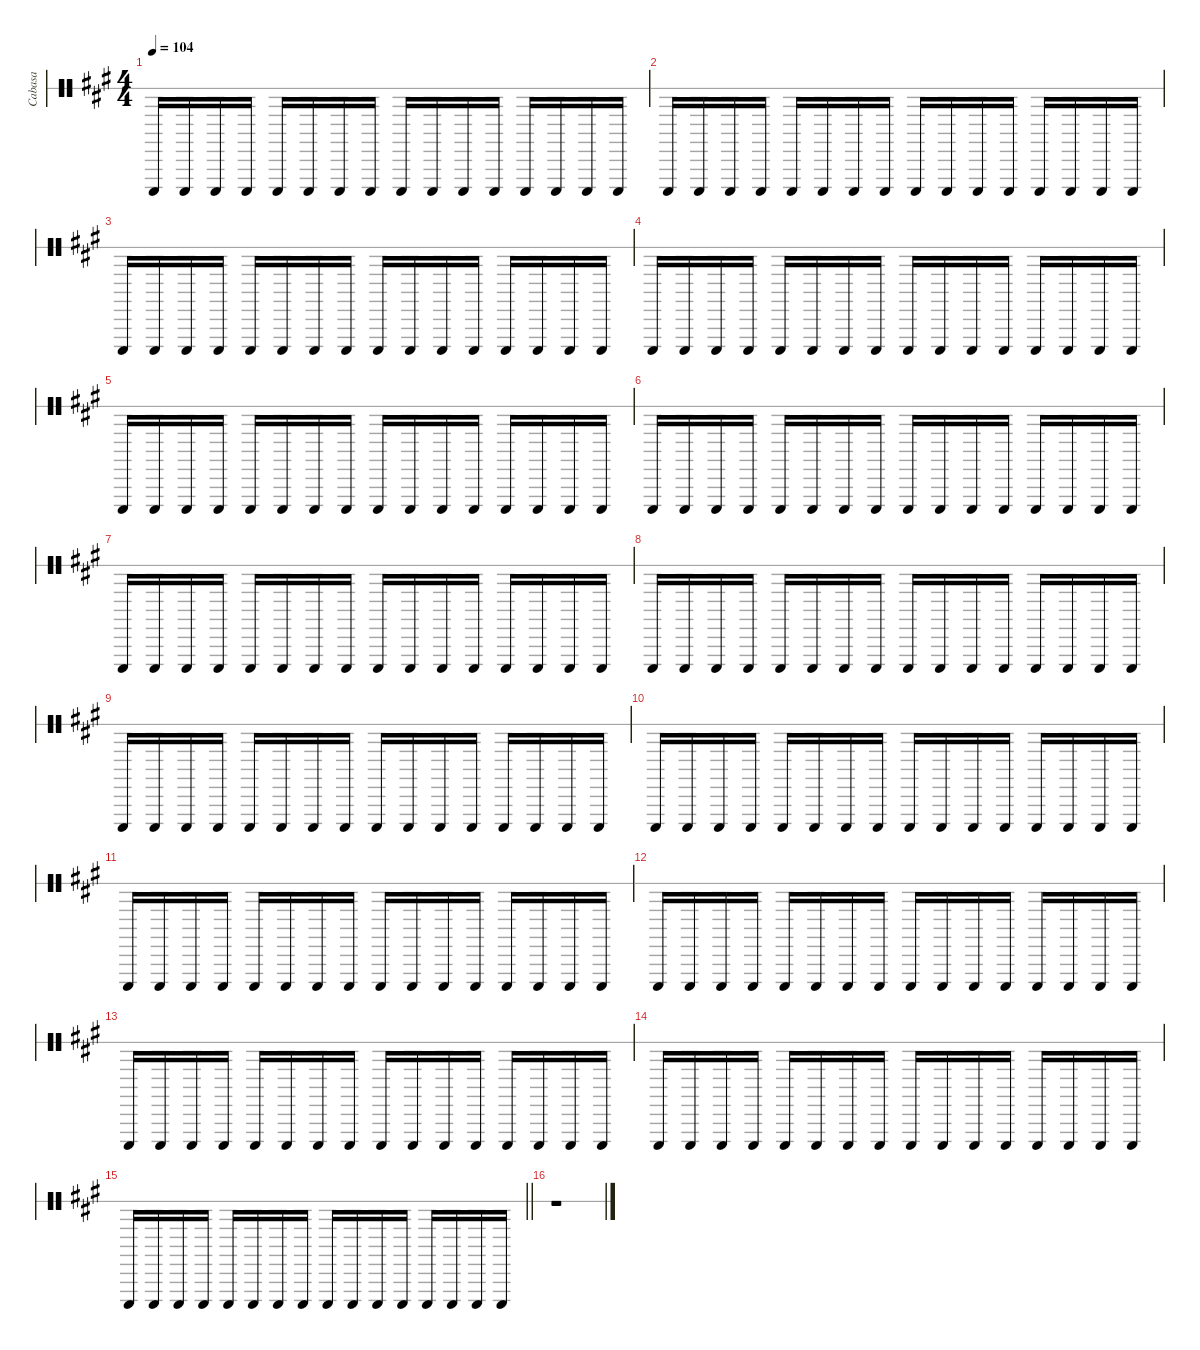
\hideDynamics
\bracketExtendMode nobrackets
\otherSystemsTrackNameOrientation horizontal
\track ("Cabasa" "Cabasa") {instrument percussion}
\staff {score 1}
\articulation defaults
\ts (4 4)
\tempo 104
\clef neutral
\ks a "Cabasa (hit)"{acc forcenatural}.16{dy f beam Up} "Cabasa (hit)"{acc forcenatural}.16{beam Up} "Cabasa (hit)"{acc forcenatural}.16{beam Up} "Cabasa (hit)"{acc forcenatural}.16{beam Up} "Cabasa (hit)"{acc forcenatural}.16{beam Up} "Cabasa (hit)"{acc forcenatural}.16{beam Up} "Cabasa (hit)"{acc forcenatural}.16{beam Up} "Cabasa (hit)"{acc forcenatural}.16{beam Up} "Cabasa (hit)"{acc forcenatural}.16{beam Up} "Cabasa (hit)"{acc forcenatural}.16{beam Up} "Cabasa (hit)"{acc forcenatural}.16{beam Up} "Cabasa (hit)"{acc forcenatural}.16{beam Up} "Cabasa (hit)"{acc forcenatural}.16{beam Up} "Cabasa (hit)"{acc forcenatural}.16{beam Up} "Cabasa (hit)"{acc forcenatural}.16{beam Up} "Cabasa (hit)"{acc forcenatural}.16{beam Up}
|
"Cabasa (hit)"{acc forcenatural}.16{beam Up} "Cabasa (hit)"{acc forcenatural}.16{beam Up} "Cabasa (hit)"{acc forcenatural}.16{beam Up} "Cabasa (hit)"{acc forcenatural}.16{beam Up} "Cabasa (hit)"{acc forcenatural}.16{beam Up} "Cabasa (hit)"{acc forcenatural}.16{beam Up} "Cabasa (hit)"{acc forcenatural}.16{beam Up} "Cabasa (hit)"{acc forcenatural}.16{beam Up} "Cabasa (hit)"{acc forcenatural}.16{beam Up} "Cabasa (hit)"{acc forcenatural}.16{beam Up} "Cabasa (hit)"{acc forcenatural}.16{beam Up} "Cabasa (hit)"{acc forcenatural}.16{beam Up} "Cabasa (hit)"{acc forcenatural}.16{beam Up} "Cabasa (hit)"{acc forcenatural}.16{beam Up} "Cabasa (hit)"{acc forcenatural}.16{beam Up} "Cabasa (hit)"{acc forcenatural}.16{beam Up} |
"Cabasa (hit)"{acc forcenatural}.16{beam Up} "Cabasa (hit)"{acc forcenatural}.16{beam Up} "Cabasa (hit)"{acc forcenatural}.16{beam Up} "Cabasa (hit)"{acc forcenatural}.16{beam Up} "Cabasa (hit)"{acc forcenatural}.16{beam Up} "Cabasa (hit)"{acc forcenatural}.16{beam Up} "Cabasa (hit)"{acc forcenatural}.16{beam Up} "Cabasa (hit)"{acc forcenatural}.16{beam Up} "Cabasa (hit)"{acc forcenatural}.16{beam Up} "Cabasa (hit)"{acc forcenatural}.16{beam Up} "Cabasa (hit)"{acc forcenatural}.16{beam Up} "Cabasa (hit)"{acc forcenatural}.16{beam Up} "Cabasa (hit)"{acc forcenatural}.16{beam Up} "Cabasa (hit)"{acc forcenatural}.16{beam Up} "Cabasa (hit)"{acc forcenatural}.16{beam Up} "Cabasa (hit)"{acc forcenatural}.16{beam Up} |
"Cabasa (hit)"{acc forcenatural}.16{beam Up} "Cabasa (hit)"{acc forcenatural}.16{beam Up} "Cabasa (hit)"{acc forcenatural}.16{beam Up} "Cabasa (hit)"{acc forcenatural}.16{beam Up} "Cabasa (hit)"{acc forcenatural}.16{beam Up} "Cabasa (hit)"{acc forcenatural}.16{beam Up} "Cabasa (hit)"{acc forcenatural}.16{beam Up} "Cabasa (hit)"{acc forcenatural}.16{beam Up} "Cabasa (hit)"{acc forcenatural}.16{beam Up} "Cabasa (hit)"{acc forcenatural}.16{beam Up} "Cabasa (hit)"{acc forcenatural}.16{beam Up} "Cabasa (hit)"{acc forcenatural}.16{beam Up} "Cabasa (hit)"{acc forcenatural}.16{beam Up} "Cabasa (hit)"{acc forcenatural}.16{beam Up} "Cabasa (hit)"{acc forcenatural}.16{beam Up} "Cabasa (hit)"{acc forcenatural}.16{beam Up} |
"Cabasa (hit)"{acc forcenatural}.16{beam Up} "Cabasa (hit)"{acc forcenatural}.16{beam Up} "Cabasa (hit)"{acc forcenatural}.16{beam Up} "Cabasa (hit)"{acc forcenatural}.16{beam Up} "Cabasa (hit)"{acc forcenatural}.16{beam Up} "Cabasa (hit)"{acc forcenatural}.16{beam Up} "Cabasa (hit)"{acc forcenatural}.16{beam Up} "Cabasa (hit)"{acc forcenatural}.16{beam Up} "Cabasa (hit)"{acc forcenatural}.16{beam Up} "Cabasa (hit)"{acc forcenatural}.16{beam Up} "Cabasa (hit)"{acc forcenatural}.16{beam Up} "Cabasa (hit)"{acc forcenatural}.16{beam Up} "Cabasa (hit)"{acc forcenatural}.16{beam Up} "Cabasa (hit)"{acc forcenatural}.16{beam Up} "Cabasa (hit)"{acc forcenatural}.16{beam Up} "Cabasa (hit)"{acc forcenatural}.16{beam Up} |
"Cabasa (hit)"{acc forcenatural}.16{beam Up} "Cabasa (hit)"{acc forcenatural}.16{beam Up} "Cabasa (hit)"{acc forcenatural}.16{beam Up} "Cabasa (hit)"{acc forcenatural}.16{beam Up} "Cabasa (hit)"{acc forcenatural}.16{beam Up} "Cabasa (hit)"{acc forcenatural}.16{beam Up} "Cabasa (hit)"{acc forcenatural}.16{beam Up} "Cabasa (hit)"{acc forcenatural}.16{beam Up} "Cabasa (hit)"{acc forcenatural}.16{beam Up} "Cabasa (hit)"{acc forcenatural}.16{beam Up} "Cabasa (hit)"{acc forcenatural}.16{beam Up} "Cabasa (hit)"{acc forcenatural}.16{beam Up} "Cabasa (hit)"{acc forcenatural}.16{beam Up} "Cabasa (hit)"{acc forcenatural}.16{beam Up} "Cabasa (hit)"{acc forcenatural}.16{beam Up} "Cabasa (hit)"{acc forcenatural}.16{beam Up} |
"Cabasa (hit)"{acc forcenatural}.16{beam Up} "Cabasa (hit)"{acc forcenatural}.16{beam Up} "Cabasa (hit)"{acc forcenatural}.16{beam Up} "Cabasa (hit)"{acc forcenatural}.16{beam Up} "Cabasa (hit)"{acc forcenatural}.16{beam Up} "Cabasa (hit)"{acc forcenatural}.16{beam Up} "Cabasa (hit)"{acc forcenatural}.16{beam Up} "Cabasa (hit)"{acc forcenatural}.16{beam Up} "Cabasa (hit)"{acc forcenatural}.16{beam Up} "Cabasa (hit)"{acc forcenatural}.16{beam Up} "Cabasa (hit)"{acc forcenatural}.16{beam Up} "Cabasa (hit)"{acc forcenatural}.16{beam Up} "Cabasa (hit)"{acc forcenatural}.16{beam Up} "Cabasa (hit)"{acc forcenatural}.16{beam Up} "Cabasa (hit)"{acc forcenatural}.16{beam Up} "Cabasa (hit)"{acc forcenatural}.16{beam Up} |
"Cabasa (hit)"{acc forcenatural}.16{beam Up} "Cabasa (hit)"{acc forcenatural}.16{beam Up} "Cabasa (hit)"{acc forcenatural}.16{beam Up} "Cabasa (hit)"{acc forcenatural}.16{beam Up} "Cabasa (hit)"{acc forcenatural}.16{beam Up} "Cabasa (hit)"{acc forcenatural}.16{beam Up} "Cabasa (hit)"{acc forcenatural}.16{beam Up} "Cabasa (hit)"{acc forcenatural}.16{beam Up} "Cabasa (hit)"{acc forcenatural}.16{beam Up} "Cabasa (hit)"{acc forcenatural}.16{beam Up} "Cabasa (hit)"{acc forcenatural}.16{beam Up} "Cabasa (hit)"{acc forcenatural}.16{beam Up} "Cabasa (hit)"{acc forcenatural}.16{beam Up} "Cabasa (hit)"{acc forcenatural}.16{beam Up} "Cabasa (hit)"{acc forcenatural}.16{beam Up} "Cabasa (hit)"{acc forcenatural}.16{beam Up} |
"Cabasa (hit)"{acc forcenatural}.16{beam Up} "Cabasa (hit)"{acc forcenatural}.16{beam Up} "Cabasa (hit)"{acc forcenatural}.16{beam Up} "Cabasa (hit)"{acc forcenatural}.16{beam Up} "Cabasa (hit)"{acc forcenatural}.16{beam Up} "Cabasa (hit)"{acc forcenatural}.16{beam Up} "Cabasa (hit)"{acc forcenatural}.16{beam Up} "Cabasa (hit)"{acc forcenatural}.16{beam Up} "Cabasa (hit)"{acc forcenatural}.16{beam Up} "Cabasa (hit)"{acc forcenatural}.16{beam Up} "Cabasa (hit)"{acc forcenatural}.16{beam Up} "Cabasa (hit)"{acc forcenatural}.16{beam Up} "Cabasa (hit)"{acc forcenatural}.16{beam Up} "Cabasa (hit)"{acc forcenatural}.16{beam Up} "Cabasa (hit)"{acc forcenatural}.16{beam Up} "Cabasa (hit)"{acc forcenatural}.16{beam Up} |
"Cabasa (hit)"{acc forcenatural}.16{beam Up} "Cabasa (hit)"{acc forcenatural}.16{beam Up} "Cabasa (hit)"{acc forcenatural}.16{beam Up} "Cabasa (hit)"{acc forcenatural}.16{beam Up} "Cabasa (hit)"{acc forcenatural}.16{beam Up} "Cabasa (hit)"{acc forcenatural}.16{beam Up} "Cabasa (hit)"{acc forcenatural}.16{beam Up} "Cabasa (hit)"{acc forcenatural}.16{beam Up} "Cabasa (hit)"{acc forcenatural}.16{beam Up} "Cabasa (hit)"{acc forcenatural}.16{beam Up} "Cabasa (hit)"{acc forcenatural}.16{beam Up} "Cabasa (hit)"{acc forcenatural}.16{beam Up} "Cabasa (hit)"{acc forcenatural}.16{beam Up} "Cabasa (hit)"{acc forcenatural}.16{beam Up} "Cabasa (hit)"{acc forcenatural}.16{beam Up} "Cabasa (hit)"{acc forcenatural}.16{beam Up} |
"Cabasa (hit)"{acc forcenatural}.16{beam Up} "Cabasa (hit)"{acc forcenatural}.16{beam Up} "Cabasa (hit)"{acc forcenatural}.16{beam Up} "Cabasa (hit)"{acc forcenatural}.16{beam Up} "Cabasa (hit)"{acc forcenatural}.16{beam Up} "Cabasa (hit)"{acc forcenatural}.16{beam Up} "Cabasa (hit)"{acc forcenatural}.16{beam Up} "Cabasa (hit)"{acc forcenatural}.16{beam Up} "Cabasa (hit)"{acc forcenatural}.16{beam Up} "Cabasa (hit)"{acc forcenatural}.16{beam Up} "Cabasa (hit)"{acc forcenatural}.16{beam Up} "Cabasa (hit)"{acc forcenatural}.16{beam Up} "Cabasa (hit)"{acc forcenatural}.16{beam Up} "Cabasa (hit)"{acc forcenatural}.16{beam Up} "Cabasa (hit)"{acc forcenatural}.16{beam Up} "Cabasa (hit)"{acc forcenatural}.16{beam Up} |
"Cabasa (hit)"{acc forcenatural}.16{beam Up} "Cabasa (hit)"{acc forcenatural}.16{beam Up} "Cabasa (hit)"{acc forcenatural}.16{beam Up} "Cabasa (hit)"{acc forcenatural}.16{beam Up} "Cabasa (hit)"{acc forcenatural}.16{beam Up} "Cabasa (hit)"{acc forcenatural}.16{beam Up} "Cabasa (hit)"{acc forcenatural}.16{beam Up} "Cabasa (hit)"{acc forcenatural}.16{beam Up} "Cabasa (hit)"{acc forcenatural}.16{beam Up} "Cabasa (hit)"{acc forcenatural}.16{beam Up} "Cabasa (hit)"{acc forcenatural}.16{beam Up} "Cabasa (hit)"{acc forcenatural}.16{beam Up} "Cabasa (hit)"{acc forcenatural}.16{beam Up} "Cabasa (hit)"{acc forcenatural}.16{beam Up} "Cabasa (hit)"{acc forcenatural}.16{beam Up} "Cabasa (hit)"{acc forcenatural}.16{beam Up} |
"Cabasa (hit)"{acc forcenatural}.16{beam Up} "Cabasa (hit)"{acc forcenatural}.16{beam Up} "Cabasa (hit)"{acc forcenatural}.16{beam Up} "Cabasa (hit)"{acc forcenatural}.16{beam Up} "Cabasa (hit)"{acc forcenatural}.16{beam Up} "Cabasa (hit)"{acc forcenatural}.16{beam Up} "Cabasa (hit)"{acc forcenatural}.16{beam Up} "Cabasa (hit)"{acc forcenatural}.16{beam Up} "Cabasa (hit)"{acc forcenatural}.16{beam Up} "Cabasa (hit)"{acc forcenatural}.16{beam Up} "Cabasa (hit)"{acc forcenatural}.16{beam Up} "Cabasa (hit)"{acc forcenatural}.16{beam Up} "Cabasa (hit)"{acc forcenatural}.16{beam Up} "Cabasa (hit)"{acc forcenatural}.16{beam Up} "Cabasa (hit)"{acc forcenatural}.16{beam Up} "Cabasa (hit)"{acc forcenatural}.16{beam Up} |
"Cabasa (hit)"{acc forcenatural}.16{beam Up} "Cabasa (hit)"{acc forcenatural}.16{beam Up} "Cabasa (hit)"{acc forcenatural}.16{beam Up} "Cabasa (hit)"{acc forcenatural}.16{beam Up} "Cabasa (hit)"{acc forcenatural}.16{beam Up} "Cabasa (hit)"{acc forcenatural}.16{beam Up} "Cabasa (hit)"{acc forcenatural}.16{beam Up} "Cabasa (hit)"{acc forcenatural}.16{beam Up} "Cabasa (hit)"{acc forcenatural}.16{beam Up} "Cabasa (hit)"{acc forcenatural}.16{beam Up} "Cabasa (hit)"{acc forcenatural}.16{beam Up} "Cabasa (hit)"{acc forcenatural}.16{beam Up} "Cabasa (hit)"{acc forcenatural}.16{beam Up} "Cabasa (hit)"{acc forcenatural}.16{beam Up} "Cabasa (hit)"{acc forcenatural}.16{beam Up} "Cabasa (hit)"{acc forcenatural}.16{beam Up} |
\barLineRight lightlight "Cabasa (hit)"{acc forcenatural}.16{beam Up} "Cabasa (hit)"{acc forcenatural}.16{beam Up} "Cabasa (hit)"{acc forcenatural}.16{beam Up} "Cabasa (hit)"{acc forcenatural}.16{beam Up} "Cabasa (hit)"{acc forcenatural}.16{beam Up} "Cabasa (hit)"{acc forcenatural}.16{beam Up} "Cabasa (hit)"{acc forcenatural}.16{beam Up} "Cabasa (hit)"{acc forcenatural}.16{beam Up} "Cabasa (hit)"{acc forcenatural}.16{beam Up} "Cabasa (hit)"{acc forcenatural}.16{beam Up} "Cabasa (hit)"{acc forcenatural}.16{beam Up} "Cabasa (hit)"{acc forcenatural}.16{beam Up} "Cabasa (hit)"{acc forcenatural}.16{beam Up} "Cabasa (hit)"{acc forcenatural}.16{beam Up} "Cabasa (hit)"{acc forcenatural}.16{beam Up} "Cabasa (hit)"{acc forcenatural}.16{beam Up}
|
r.1{beam Down}
